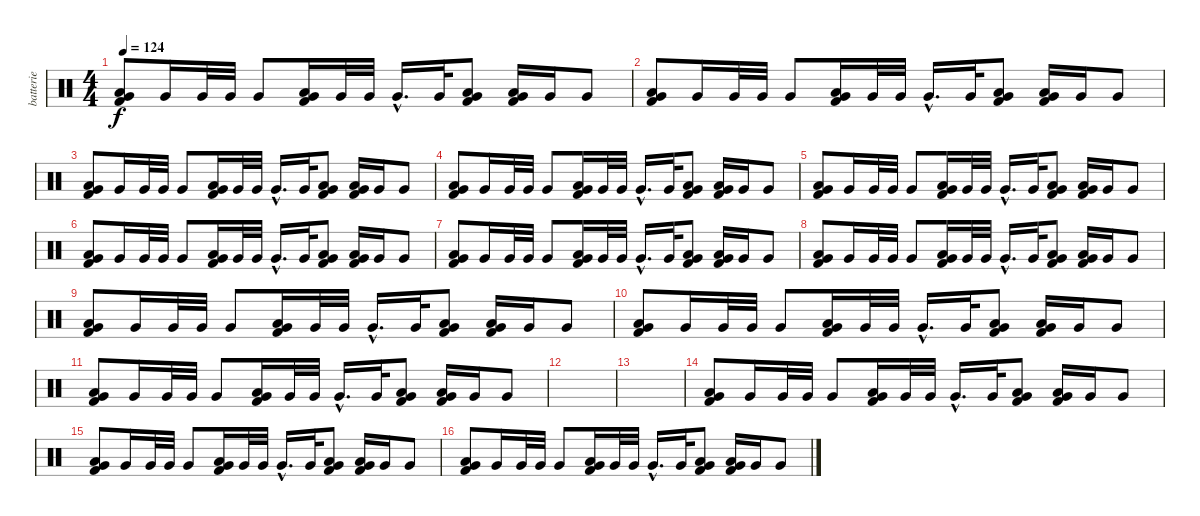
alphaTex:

\track ("batterie" "batterie") {instrument percussion}
\staff {score}
\articulation defaults
\ts (4 4)
\tempo 124
\clef neutral
\ks c
("Low Floor Tom (hit)" "Very Low Tom (hit)" "Kick (hit) 2").8{dy f} "Very Low Tom (hit)".16 "Very Low Tom (hit)".32 "Very Low Tom (hit)".32 "Very Low Tom (hit)".8 ("Low Floor Tom (hit)" "Very Low Tom (hit)" "Kick (hit) 2").16 "Very Low Tom (hit)".32 "Very Low Tom (hit)".32 "Very Low Tom (hit)"{hac}.16{d} "Very Low Tom (hit)".32 ("Low Floor Tom (hit)" "Very Low Tom (hit)" "Kick (hit) 2").8 ("Low Floor Tom (hit)" "Very Low Tom (hit)" "Kick (hit) 2").16 "Very Low Tom (hit)".16 "Very Low Tom (hit)".8 |
("Low Floor Tom (hit)" "Very Low Tom (hit)" "Kick (hit) 2").8 "Very Low Tom (hit)".16 "Very Low Tom (hit)".32 "Very Low Tom (hit)".32 "Very Low Tom (hit)".8 ("Low Floor Tom (hit)" "Very Low Tom (hit)" "Kick (hit) 2").16 "Very Low Tom (hit)".32 "Very Low Tom (hit)".32 "Very Low Tom (hit)"{hac}.16{d} "Very Low Tom (hit)".32 ("Low Floor Tom (hit)" "Very Low Tom (hit)" "Kick (hit) 2").8 ("Low Floor Tom (hit)" "Very Low Tom (hit)" "Kick (hit) 2").16 "Very Low Tom (hit)".16 "Very Low Tom (hit)".8 |
("Low Floor Tom (hit)" "Very Low Tom (hit)" "Kick (hit) 2").8 "Very Low Tom (hit)".16 "Very Low Tom (hit)".32 "Very Low Tom (hit)".32 "Very Low Tom (hit)".8 ("Low Floor Tom (hit)" "Very Low Tom (hit)" "Kick (hit) 2").16 "Very Low Tom (hit)".32 "Very Low Tom (hit)".32 "Very Low Tom (hit)"{hac}.16{d} "Very Low Tom (hit)".32 ("Low Floor Tom (hit)" "Very Low Tom (hit)" "Kick (hit) 2").8 ("Low Floor Tom (hit)" "Very Low Tom (hit)" "Kick (hit) 2").16 "Very Low Tom (hit)".16 "Very Low Tom (hit)".8 |
("Low Floor Tom (hit)" "Very Low Tom (hit)" "Kick (hit) 2").8 "Very Low Tom (hit)".16 "Very Low Tom (hit)".32 "Very Low Tom (hit)".32 "Very Low Tom (hit)".8 ("Low Floor Tom (hit)" "Very Low Tom (hit)" "Kick (hit) 2").16 "Very Low Tom (hit)".32 "Very Low Tom (hit)".32 "Very Low Tom (hit)"{hac}.16{d} "Very Low Tom (hit)".32 ("Low Floor Tom (hit)" "Very Low Tom (hit)" "Kick (hit) 2").8 ("Low Floor Tom (hit)" "Very Low Tom (hit)" "Kick (hit) 2").16 "Very Low Tom (hit)".16 "Very Low Tom (hit)".8 |
("Low Floor Tom (hit)" "Very Low Tom (hit)" "Kick (hit) 2").8 "Very Low Tom (hit)".16 "Very Low Tom (hit)".32 "Very Low Tom (hit)".32 "Very Low Tom (hit)".8 ("Low Floor Tom (hit)" "Very Low Tom (hit)" "Kick (hit) 2").16 "Very Low Tom (hit)".32 "Very Low Tom (hit)".32 "Very Low Tom (hit)"{hac}.16{d} "Very Low Tom (hit)".32 ("Low Floor Tom (hit)" "Very Low Tom (hit)" "Kick (hit) 2").8 ("Low Floor Tom (hit)" "Very Low Tom (hit)" "Kick (hit) 2").16 "Very Low Tom (hit)".16 "Very Low Tom (hit)".8 |
("Low Floor Tom (hit)" "Very Low Tom (hit)" "Kick (hit) 2").8 "Very Low Tom (hit)".16 "Very Low Tom (hit)".32 "Very Low Tom (hit)".32 "Very Low Tom (hit)".8 ("Low Floor Tom (hit)" "Very Low Tom (hit)" "Kick (hit) 2").16 "Very Low Tom (hit)".32 "Very Low Tom (hit)".32 "Very Low Tom (hit)"{hac}.16{d} "Very Low Tom (hit)".32 ("Low Floor Tom (hit)" "Very Low Tom (hit)" "Kick (hit) 2").8 ("Low Floor Tom (hit)" "Very Low Tom (hit)" "Kick (hit) 2").16 "Very Low Tom (hit)".16 "Very Low Tom (hit)".8 |
("Low Floor Tom (hit)" "Very Low Tom (hit)" "Kick (hit) 2").8 "Very Low Tom (hit)".16 "Very Low Tom (hit)".32 "Very Low Tom (hit)".32 "Very Low Tom (hit)".8 ("Low Floor Tom (hit)" "Very Low Tom (hit)" "Kick (hit) 2").16 "Very Low Tom (hit)".32 "Very Low Tom (hit)".32 "Very Low Tom (hit)"{hac}.16{d} "Very Low Tom (hit)".32 ("Low Floor Tom (hit)" "Very Low Tom (hit)" "Kick (hit) 2").8 ("Low Floor Tom (hit)" "Very Low Tom (hit)" "Kick (hit) 2").16 "Very Low Tom (hit)".16 "Very Low Tom (hit)".8 |
("Low Floor Tom (hit)" "Very Low Tom (hit)" "Kick (hit) 2").8 "Very Low Tom (hit)".16 "Very Low Tom (hit)".32 "Very Low Tom (hit)".32 "Very Low Tom (hit)".8 ("Low Floor Tom (hit)" "Very Low Tom (hit)" "Kick (hit) 2").16 "Very Low Tom (hit)".32 "Very Low Tom (hit)".32 "Very Low Tom (hit)"{hac}.16{d} "Very Low Tom (hit)".32 ("Low Floor Tom (hit)" "Very Low Tom (hit)" "Kick (hit) 2").8 ("Low Floor Tom (hit)" "Very Low Tom (hit)" "Kick (hit) 2").16 "Very Low Tom (hit)".16 "Very Low Tom (hit)".8 |
("Low Floor Tom (hit)" "Very Low Tom (hit)" "Kick (hit) 2").8 "Very Low Tom (hit)".16 "Very Low Tom (hit)".32 "Very Low Tom (hit)".32 "Very Low Tom (hit)".8 ("Low Floor Tom (hit)" "Very Low Tom (hit)" "Kick (hit) 2").16 "Very Low Tom (hit)".32 "Very Low Tom (hit)".32 "Very Low Tom (hit)"{hac}.16{d} "Very Low Tom (hit)".32 ("Low Floor Tom (hit)" "Very Low Tom (hit)" "Kick (hit) 2").8 ("Low Floor Tom (hit)" "Very Low Tom (hit)" "Kick (hit) 2").16 "Very Low Tom (hit)".16 "Very Low Tom (hit)".8 |
("Low Floor Tom (hit)" "Very Low Tom (hit)" "Kick (hit) 2").8 "Very Low Tom (hit)".16 "Very Low Tom (hit)".32 "Very Low Tom (hit)".32 "Very Low Tom (hit)".8 ("Low Floor Tom (hit)" "Very Low Tom (hit)" "Kick (hit) 2").16 "Very Low Tom (hit)".32 "Very Low Tom (hit)".32 "Very Low Tom (hit)"{hac}.16{d} "Very Low Tom (hit)".32 ("Low Floor Tom (hit)" "Very Low Tom (hit)" "Kick (hit) 2").8 ("Low Floor Tom (hit)" "Very Low Tom (hit)" "Kick (hit) 2").16 "Very Low Tom (hit)".16 "Very Low Tom (hit)".8 |
("Low Floor Tom (hit)" "Very Low Tom (hit)" "Kick (hit) 2").8 "Very Low Tom (hit)".16 "Very Low Tom (hit)".32 "Very Low Tom (hit)".32 "Very Low Tom (hit)".8 ("Low Floor Tom (hit)" "Very Low Tom (hit)" "Kick (hit) 2").16 "Very Low Tom (hit)".32 "Very Low Tom (hit)".32 "Very Low Tom (hit)"{hac}.16{d} "Very Low Tom (hit)".32 ("Low Floor Tom (hit)" "Very Low Tom (hit)" "Kick (hit) 2").8 ("Low Floor Tom (hit)" "Very Low Tom (hit)" "Kick (hit) 2").16 "Very Low Tom (hit)".16 "Very Low Tom (hit)".8 |
|
|
("Low Floor Tom (hit)" "Very Low Tom (hit)" "Kick (hit) 2").8 "Very Low Tom (hit)".16 "Very Low Tom (hit)".32 "Very Low Tom (hit)".32 "Very Low Tom (hit)".8 ("Low Floor Tom (hit)" "Very Low Tom (hit)" "Kick (hit) 2").16 "Very Low Tom (hit)".32 "Very Low Tom (hit)".32 "Very Low Tom (hit)"{hac}.16{d} "Very Low Tom (hit)".32 ("Low Floor Tom (hit)" "Very Low Tom (hit)" "Kick (hit) 2").8 ("Low Floor Tom (hit)" "Very Low Tom (hit)" "Kick (hit) 2").16 "Very Low Tom (hit)".16 "Very Low Tom (hit)".8 |
("Low Floor Tom (hit)" "Very Low Tom (hit)" "Kick (hit) 2").8 "Very Low Tom (hit)".16 "Very Low Tom (hit)".32 "Very Low Tom (hit)".32 "Very Low Tom (hit)".8 ("Low Floor Tom (hit)" "Very Low Tom (hit)" "Kick (hit) 2").16 "Very Low Tom (hit)".32 "Very Low Tom (hit)".32 "Very Low Tom (hit)"{hac}.16{d} "Very Low Tom (hit)".32 ("Low Floor Tom (hit)" "Very Low Tom (hit)" "Kick (hit) 2").8 ("Low Floor Tom (hit)" "Very Low Tom (hit)" "Kick (hit) 2").16 "Very Low Tom (hit)".16 "Very Low Tom (hit)".8 |
("Low Floor Tom (hit)" "Very Low Tom (hit)" "Kick (hit) 2").8 "Very Low Tom (hit)".16 "Very Low Tom (hit)".32 "Very Low Tom (hit)".32 "Very Low Tom (hit)".8 ("Low Floor Tom (hit)" "Very Low Tom (hit)" "Kick (hit) 2").16 "Very Low Tom (hit)".32 "Very Low Tom (hit)".32 "Very Low Tom (hit)"{hac}.16{d} "Very Low Tom (hit)".32 ("Low Floor Tom (hit)" "Very Low Tom (hit)" "Kick (hit) 2").8 ("Low Floor Tom (hit)" "Very Low Tom (hit)" "Kick (hit) 2").16 "Very Low Tom (hit)".16 "Very Low Tom (hit)".8
